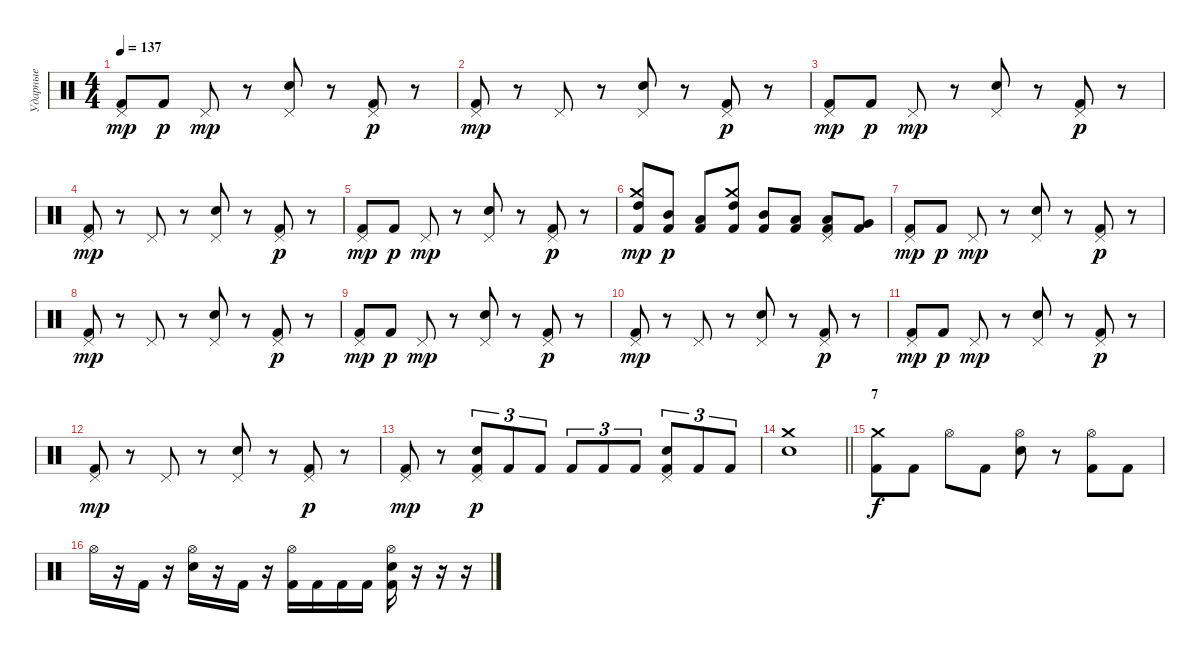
\track ("Ударные" "Ударные") {instrument percussion}
\staff {score}
\articulation defaults
\ts (4 4)
\tempo 137
\clef neutral
\ks c
("Pedal Hi-Hat (hit)" "Kick (hit) 2").8{dy mp} "Kick (hit) 2".8{dy p} "Pedal Hi-Hat (hit)".8{dy mp} r.8 ("Pedal Hi-Hat (hit)" "Snare (hit) 2").8 r.8 ("Pedal Hi-Hat (hit)" "Kick (hit) 2").8{dy p} r.8 |
("Pedal Hi-Hat (hit)" "Kick (hit) 2").8{dy mp} r.8 "Pedal Hi-Hat (hit)".8 r.8 ("Pedal Hi-Hat (hit)" "Snare (hit) 2").8 r.8 ("Pedal Hi-Hat (hit)" "Kick (hit) 2").8{dy p} r.8 |
("Pedal Hi-Hat (hit)" "Kick (hit) 2").8{dy mp} "Kick (hit) 2".8{dy p} "Pedal Hi-Hat (hit)".8{dy mp} r.8 ("Pedal Hi-Hat (hit)" "Snare (hit) 2").8 r.8 ("Pedal Hi-Hat (hit)" "Kick (hit) 2").8{dy p} r.8 |
("Pedal Hi-Hat (hit)" "Kick (hit) 2").8{dy mp} r.8 "Pedal Hi-Hat (hit)".8 r.8 ("Pedal Hi-Hat (hit)" "Snare (hit) 2").8 r.8 ("Pedal Hi-Hat (hit)" "Kick (hit) 2").8{dy p} r.8 |
("Pedal Hi-Hat (hit)" "Kick (hit) 2").8{dy mp} "Kick (hit) 2".8{dy p} "Pedal Hi-Hat (hit)".8{dy mp} r.8 ("Pedal Hi-Hat (hit)" "Snare (hit) 2").8 r.8 ("Pedal Hi-Hat (hit)" "Kick (hit) 2").8{dy p} r.8 |
("Crash medium (hit)" "High Tom (hit)" "Kick (hit) 2").8{dy mp} ("Mid Tom (hit)" "Kick (hit) 2").8{dy p} ("Low Tom (hit)" "Kick (hit) 2").8 ("Crash medium (hit)" "High Tom (hit)" "Kick (hit) 2").8 ("Mid Tom (hit)" "Kick (hit) 2").8 ("Low Tom (hit)" "Kick (hit) 2").8 ("Pedal Hi-Hat (hit)" "Low Tom (hit)" "Kick (hit) 2").8 ("Very Low Tom (hit)" "Kick (hit) 2").8 |
("Pedal Hi-Hat (hit)" "Kick (hit) 2").8{dy mp} "Kick (hit) 2".8{dy p} "Pedal Hi-Hat (hit)".8{dy mp} r.8 ("Pedal Hi-Hat (hit)" "Snare (hit) 2").8 r.8 ("Pedal Hi-Hat (hit)" "Kick (hit) 2").8{dy p} r.8 |
("Pedal Hi-Hat (hit)" "Kick (hit) 2").8{dy mp} r.8 "Pedal Hi-Hat (hit)".8 r.8 ("Pedal Hi-Hat (hit)" "Snare (hit) 2").8 r.8 ("Pedal Hi-Hat (hit)" "Kick (hit) 2").8{dy p} r.8 |
("Pedal Hi-Hat (hit)" "Kick (hit) 2").8{dy mp} "Kick (hit) 2".8{dy p} "Pedal Hi-Hat (hit)".8{dy mp} r.8 ("Pedal Hi-Hat (hit)" "Snare (hit) 2").8 r.8 ("Pedal Hi-Hat (hit)" "Kick (hit) 2").8{dy p} r.8 |
("Pedal Hi-Hat (hit)" "Kick (hit) 2").8{dy mp} r.8 "Pedal Hi-Hat (hit)".8 r.8 ("Pedal Hi-Hat (hit)" "Snare (hit) 2").8 r.8 ("Pedal Hi-Hat (hit)" "Kick (hit) 2").8{dy p} r.8 |
("Pedal Hi-Hat (hit)" "Kick (hit) 2").8{dy mp} "Kick (hit) 2".8{dy p} "Pedal Hi-Hat (hit)".8{dy mp} r.8 ("Pedal Hi-Hat (hit)" "Snare (hit) 2").8 r.8 ("Pedal Hi-Hat (hit)" "Kick (hit) 2").8{dy p} r.8 |
("Pedal Hi-Hat (hit)" "Kick (hit) 2").8{dy mp} r.8 "Pedal Hi-Hat (hit)".8 r.8 ("Pedal Hi-Hat (hit)" "Snare (hit) 2").8 r.8 ("Pedal Hi-Hat (hit)" "Kick (hit) 2").8{dy p} r.8 |
("Pedal Hi-Hat (hit)" "Kick (hit) 2").8{dy mp} r.8 ("Pedal Hi-Hat (hit)" "Snare (hit) 2" "Kick (hit) 2").8{tu (3 2) dy p} "Kick (hit) 2".8{tu (3 2)} "Kick (hit) 2".8{tu (3 2)} "Kick (hit) 2".8{tu (3 2)} "Kick (hit) 2".8{tu (3 2)} "Kick (hit) 2".8{tu (3 2)} ("Pedal Hi-Hat (hit)" "Snare (hit) 2" "Kick (hit) 2").8{tu (3 2)} "Kick (hit) 2".8{tu (3 2)} "Kick (hit) 2".8{tu (3 2)} |
\barLineRight lightlight
("Crash medium (hit)" "Snare (hit) 2").1 |
\section ("" "7")
("Crash medium (hit)" "Kick (hit) 2").8{dy f} "Kick (hit) 2".8 "Hi-Hat (open)".8 "Kick (hit) 2".8 ("Hi-Hat (open)" "Snare (hit) 2").8 r.8 ("Hi-Hat (open)" "Kick (hit) 2").8 "Kick (hit) 2".8 |
"Hi-Hat (open)".16 r.16 "Kick (hit) 2".16 r.16 ("Hi-Hat (open)" "Snare (hit) 2").16 r.16 "Kick (hit) 2".16 r.16 ("Hi-Hat (open)" "Kick (hit) 2").16 "Kick (hit) 2".16 "Kick (hit) 2".16 "Kick (hit) 2".16 ("Hi-Hat (open)" "Snare (hit) 2" "Kick (hit) 2").16 r.16 r.16 r.16
